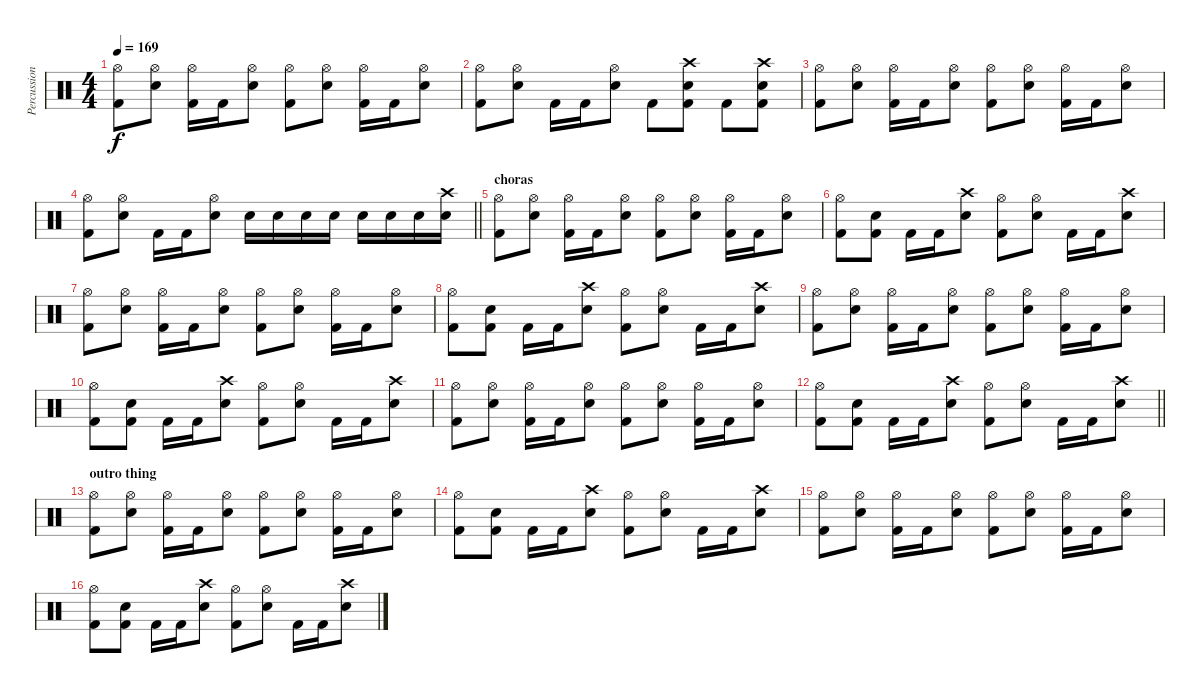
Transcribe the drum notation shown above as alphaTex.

\track ("Percussion" "Percussion") {instrument percussion}
\staff {score}
\articulation defaults
\ts (4 4)
\tempo 169
\clef neutral
\ks c
("Hi-Hat (open)" "Kick (hit) 2").8{dy f} ("Hi-Hat (open)" "Electric Snare (hit)").8 ("Hi-Hat (open)" "Kick (hit) 2").16 "Kick (hit) 2".16 ("Hi-Hat (open)" "Electric Snare (hit)").8 ("Hi-Hat (open)" "Kick (hit) 2").8 ("Hi-Hat (open)" "Electric Snare (hit)").8 ("Hi-Hat (open)" "Kick (hit) 2").16 "Kick (hit) 2".16 ("Hi-Hat (open)" "Electric Snare (hit)").8 |
("Hi-Hat (open)" "Kick (hit) 2").8 ("Hi-Hat (open)" "Electric Snare (hit)").8 "Kick (hit) 2".16 "Kick (hit) 2".16 ("Hi-Hat (open)" "Electric Snare (hit)").8 "Kick (hit) 2".8 ("Crash high (hit)" "Electric Snare (hit)" "Kick (hit) 2").8 "Kick (hit) 2".8 ("Crash high (hit)" "Electric Snare (hit)" "Kick (hit) 2").8 |
("Hi-Hat (open)" "Kick (hit) 2").8 ("Hi-Hat (open)" "Electric Snare (hit)").8 ("Hi-Hat (open)" "Kick (hit) 2").16 "Kick (hit) 2".16 ("Hi-Hat (open)" "Electric Snare (hit)").8 ("Hi-Hat (open)" "Kick (hit) 2").8 ("Hi-Hat (open)" "Electric Snare (hit)").8 ("Hi-Hat (open)" "Kick (hit) 2").16 "Kick (hit) 2".16 ("Hi-Hat (open)" "Electric Snare (hit)").8 |
\barLineRight lightlight
("Hi-Hat (open)" "Kick (hit) 2").8 ("Hi-Hat (open)" "Electric Snare (hit)").8 "Kick (hit) 2".16 "Kick (hit) 2".16 ("Hi-Hat (open)" "Electric Snare (hit)").8 "Electric Snare (hit)".16 "Electric Snare (hit)".16 "Electric Snare (hit)".16 "Electric Snare (hit)".16 "Electric Snare (hit)".16 "Electric Snare (hit)".16 "Electric Snare (hit)".16 ("Crash high (hit)" "Electric Snare (hit)").16 |
\section ("" "choras")
("Hi-Hat (open)" "Kick (hit) 2").8 ("Hi-Hat (open)" "Electric Snare (hit)").8 ("Hi-Hat (open)" "Kick (hit) 2").16 "Kick (hit) 2".16 ("Hi-Hat (open)" "Electric Snare (hit)").8 ("Hi-Hat (open)" "Kick (hit) 2").8 ("Hi-Hat (open)" "Electric Snare (hit)").8 ("Hi-Hat (open)" "Kick (hit) 2").16 "Kick (hit) 2".16 ("Hi-Hat (open)" "Electric Snare (hit)").8 |
("Hi-Hat (open)" "Kick (hit) 2").8 ("Kick (hit) 2" "Electric Snare (hit)").8 "Kick (hit) 2".16 "Kick (hit) 2".16 ("Crash high (hit)" "Electric Snare (hit)").8 ("Hi-Hat (open)" "Kick (hit) 2").8 ("Hi-Hat (open)" "Electric Snare (hit)").8 "Kick (hit) 2".16 "Kick (hit) 2".16 ("Crash high (hit)" "Electric Snare (hit)").8 |
("Hi-Hat (open)" "Kick (hit) 2").8 ("Hi-Hat (open)" "Electric Snare (hit)").8 ("Hi-Hat (open)" "Kick (hit) 2").16 "Kick (hit) 2".16 ("Hi-Hat (open)" "Electric Snare (hit)").8 ("Hi-Hat (open)" "Kick (hit) 2").8 ("Hi-Hat (open)" "Electric Snare (hit)").8 ("Hi-Hat (open)" "Kick (hit) 2").16 "Kick (hit) 2".16 ("Hi-Hat (open)" "Electric Snare (hit)").8 |
("Hi-Hat (open)" "Kick (hit) 2").8 ("Kick (hit) 2" "Electric Snare (hit)").8 "Kick (hit) 2".16 "Kick (hit) 2".16 ("Crash high (hit)" "Electric Snare (hit)").8 ("Hi-Hat (open)" "Kick (hit) 2").8 ("Hi-Hat (open)" "Electric Snare (hit)").8 "Kick (hit) 2".16 "Kick (hit) 2".16 ("Crash high (hit)" "Electric Snare (hit)").8 |
("Hi-Hat (open)" "Kick (hit) 2").8 ("Hi-Hat (open)" "Electric Snare (hit)").8 ("Hi-Hat (open)" "Kick (hit) 2").16 "Kick (hit) 2".16 ("Hi-Hat (open)" "Electric Snare (hit)").8 ("Hi-Hat (open)" "Kick (hit) 2").8 ("Hi-Hat (open)" "Electric Snare (hit)").8 ("Hi-Hat (open)" "Kick (hit) 2").16 "Kick (hit) 2".16 ("Hi-Hat (open)" "Electric Snare (hit)").8 |
("Hi-Hat (open)" "Kick (hit) 2").8 ("Kick (hit) 2" "Electric Snare (hit)").8 "Kick (hit) 2".16 "Kick (hit) 2".16 ("Crash high (hit)" "Electric Snare (hit)").8 ("Hi-Hat (open)" "Kick (hit) 2").8 ("Hi-Hat (open)" "Electric Snare (hit)").8 "Kick (hit) 2".16 "Kick (hit) 2".16 ("Crash high (hit)" "Electric Snare (hit)").8 |
("Hi-Hat (open)" "Kick (hit) 2").8 ("Hi-Hat (open)" "Electric Snare (hit)").8 ("Hi-Hat (open)" "Kick (hit) 2").16 "Kick (hit) 2".16 ("Hi-Hat (open)" "Electric Snare (hit)").8 ("Hi-Hat (open)" "Kick (hit) 2").8 ("Hi-Hat (open)" "Electric Snare (hit)").8 ("Hi-Hat (open)" "Kick (hit) 2").16 "Kick (hit) 2".16 ("Hi-Hat (open)" "Electric Snare (hit)").8 |
\barLineRight lightlight
("Hi-Hat (open)" "Kick (hit) 2").8 ("Kick (hit) 2" "Electric Snare (hit)").8 "Kick (hit) 2".16 "Kick (hit) 2".16 ("Crash high (hit)" "Electric Snare (hit)").8 ("Hi-Hat (open)" "Kick (hit) 2").8 ("Hi-Hat (open)" "Electric Snare (hit)").8 "Kick (hit) 2".16 "Kick (hit) 2".16 ("Crash high (hit)" "Electric Snare (hit)").8 |
\section ("" "outro thing")
("Hi-Hat (open)" "Kick (hit) 2").8 ("Hi-Hat (open)" "Electric Snare (hit)").8 ("Hi-Hat (open)" "Kick (hit) 2").16 "Kick (hit) 2".16 ("Hi-Hat (open)" "Electric Snare (hit)").8 ("Hi-Hat (open)" "Kick (hit) 2").8 ("Hi-Hat (open)" "Electric Snare (hit)").8 ("Hi-Hat (open)" "Kick (hit) 2").16 "Kick (hit) 2".16 ("Hi-Hat (open)" "Electric Snare (hit)").8 |
("Hi-Hat (open)" "Kick (hit) 2").8 ("Kick (hit) 2" "Electric Snare (hit)").8 "Kick (hit) 2".16 "Kick (hit) 2".16 ("Crash high (hit)" "Electric Snare (hit)").8 ("Hi-Hat (open)" "Kick (hit) 2").8 ("Hi-Hat (open)" "Electric Snare (hit)").8 "Kick (hit) 2".16 "Kick (hit) 2".16 ("Crash high (hit)" "Electric Snare (hit)").8 |
("Hi-Hat (open)" "Kick (hit) 2").8 ("Hi-Hat (open)" "Electric Snare (hit)").8 ("Hi-Hat (open)" "Kick (hit) 2").16 "Kick (hit) 2".16 ("Hi-Hat (open)" "Electric Snare (hit)").8 ("Hi-Hat (open)" "Kick (hit) 2").8 ("Hi-Hat (open)" "Electric Snare (hit)").8 ("Hi-Hat (open)" "Kick (hit) 2").16 "Kick (hit) 2".16 ("Hi-Hat (open)" "Electric Snare (hit)").8 |
("Hi-Hat (open)" "Kick (hit) 2").8 ("Kick (hit) 2" "Electric Snare (hit)").8 "Kick (hit) 2".16 "Kick (hit) 2".16 ("Crash high (hit)" "Electric Snare (hit)").8 ("Hi-Hat (open)" "Kick (hit) 2").8 ("Hi-Hat (open)" "Electric Snare (hit)").8 "Kick (hit) 2".16 "Kick (hit) 2".16 ("Crash high (hit)" "Electric Snare (hit)").8
